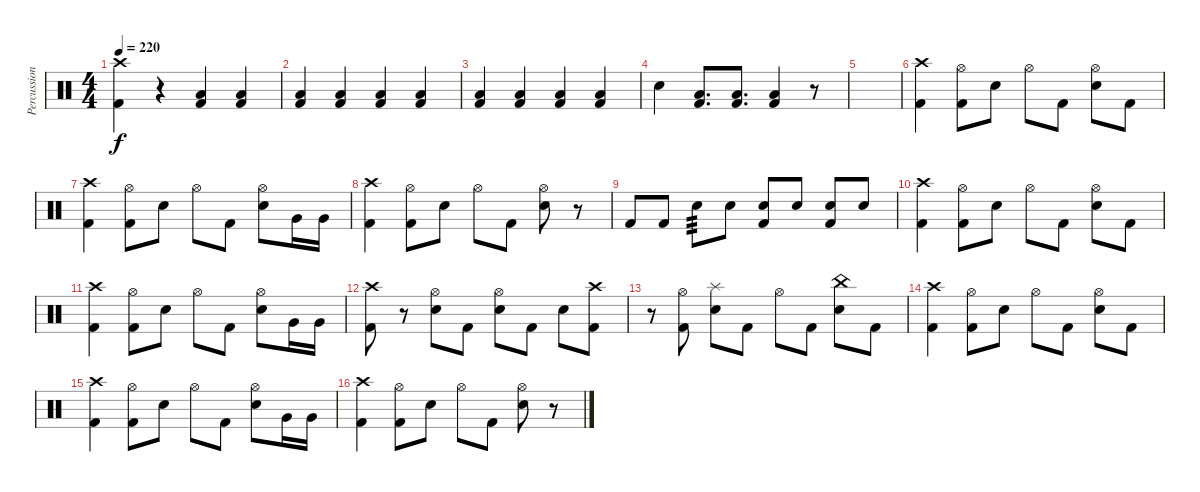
\track ("Percussion" "Percussion") {instrument percussion}
\staff {score}
\articulation defaults
\ts (4 4)
\tempo 220
\clef neutral
\ks c
("Crash high (hit)" "Kick (hit) 2").4{dy f} r.4 ("Low Floor Tom (hit)" "Kick (hit) 2").4 ("Low Floor Tom (hit)" "Kick (hit) 2").4 |
("Low Floor Tom (hit)" "Kick (hit) 2").4 ("Low Floor Tom (hit)" "Kick (hit) 2").4 ("Low Floor Tom (hit)" "Kick (hit) 2").4 ("Low Floor Tom (hit)" "Kick (hit) 2").4 |
("Low Floor Tom (hit)" "Kick (hit) 2").4 ("Low Floor Tom (hit)" "Kick (hit) 2").4 ("Low Floor Tom (hit)" "Kick (hit) 2").4 ("Low Floor Tom (hit)" "Kick (hit) 2").4 |
"Electric Snare (hit)".4 ("Low Floor Tom (hit)" "Kick (hit) 2").8{d} ("Low Floor Tom (hit)" "Kick (hit) 2").8{d} ("Low Floor Tom (hit)" "Kick (hit) 2").4 r.8 |
|
("Crash high (hit)" "Kick (hit) 2").4 ("Hi-Hat (open)" "Kick (hit) 2").8 "Electric Snare (hit)".8 "Hi-Hat (open)".8 "Kick (hit) 2".8 ("Hi-Hat (open)" "Electric Snare (hit)").8 "Kick (hit) 2".8 |
("Crash high (hit)" "Kick (hit) 2").4 ("Hi-Hat (open)" "Kick (hit) 2").8 "Electric Snare (hit)".8 "Hi-Hat (open)".8 "Kick (hit) 2".8 ("Hi-Hat (open)" "Electric Snare (hit)").8 "Very Low Tom (hit)".16 "Very Low Tom (hit)".16 |
("Crash high (hit)" "Kick (hit) 2").4 ("Hi-Hat (open)" "Kick (hit) 2").8 "Electric Snare (hit)".8 "Hi-Hat (open)".8 "Kick (hit) 2".8 ("Hi-Hat (open)" "Electric Snare (hit)").8 r.8 |
"Kick (hit) 2".8 "Kick (hit) 2".8 "Electric Snare (hit)".8{tp 3} "Electric Snare (hit)".8 ("Electric Snare (hit)" "Kick (hit) 2").8 "Electric Snare (hit)".8 ("Electric Snare (hit)" "Kick (hit) 2").8 "Electric Snare (hit)".8 |
("Crash high (hit)" "Kick (hit) 2").4 ("Hi-Hat (open)" "Kick (hit) 2").8 "Electric Snare (hit)".8 "Hi-Hat (open)".8 "Kick (hit) 2".8 ("Hi-Hat (open)" "Electric Snare (hit)").8 "Kick (hit) 2".8 |
("Crash high (hit)" "Kick (hit) 2").4 ("Hi-Hat (open)" "Kick (hit) 2").8 "Electric Snare (hit)".8 "Hi-Hat (open)".8 "Kick (hit) 2".8 ("Hi-Hat (open)" "Electric Snare (hit)").8 "Very Low Tom (hit)".16 "Very Low Tom (hit)".16 |
("Crash high (hit)" "Kick (hit) 2").8 r.8 ("Hi-Hat (open)" "Electric Snare (hit)").8 "Kick (hit) 2".8 ("Hi-Hat (open)" "Electric Snare (hit)").8 "Kick (hit) 2".8 "Electric Snare (hit)".8 ("Crash high (hit)" "Kick (hit) 2").8 |
r.8 ("Hi-Hat (open)" "Kick (hit) 2").8 ("Splash (hit)" "Electric Snare (hit)").8 "Kick (hit) 2".8 "Hi-Hat (open)".8 "Kick (hit) 2".8 ("China (hit)" "Electric Snare (hit)").8 "Kick (hit) 2".8 |
("Crash high (hit)" "Kick (hit) 2").4 ("Hi-Hat (open)" "Kick (hit) 2").8 "Electric Snare (hit)".8 "Hi-Hat (open)".8 "Kick (hit) 2".8 ("Hi-Hat (open)" "Electric Snare (hit)").8 "Kick (hit) 2".8 |
("Crash high (hit)" "Kick (hit) 2").4 ("Hi-Hat (open)" "Kick (hit) 2").8 "Electric Snare (hit)".8 "Hi-Hat (open)".8 "Kick (hit) 2".8 ("Hi-Hat (open)" "Electric Snare (hit)").8 "Very Low Tom (hit)".16 "Very Low Tom (hit)".16 |
("Crash high (hit)" "Kick (hit) 2").4 ("Hi-Hat (open)" "Kick (hit) 2").8 "Electric Snare (hit)".8 "Hi-Hat (open)".8 "Kick (hit) 2".8 ("Hi-Hat (open)" "Electric Snare (hit)").8 r.8
